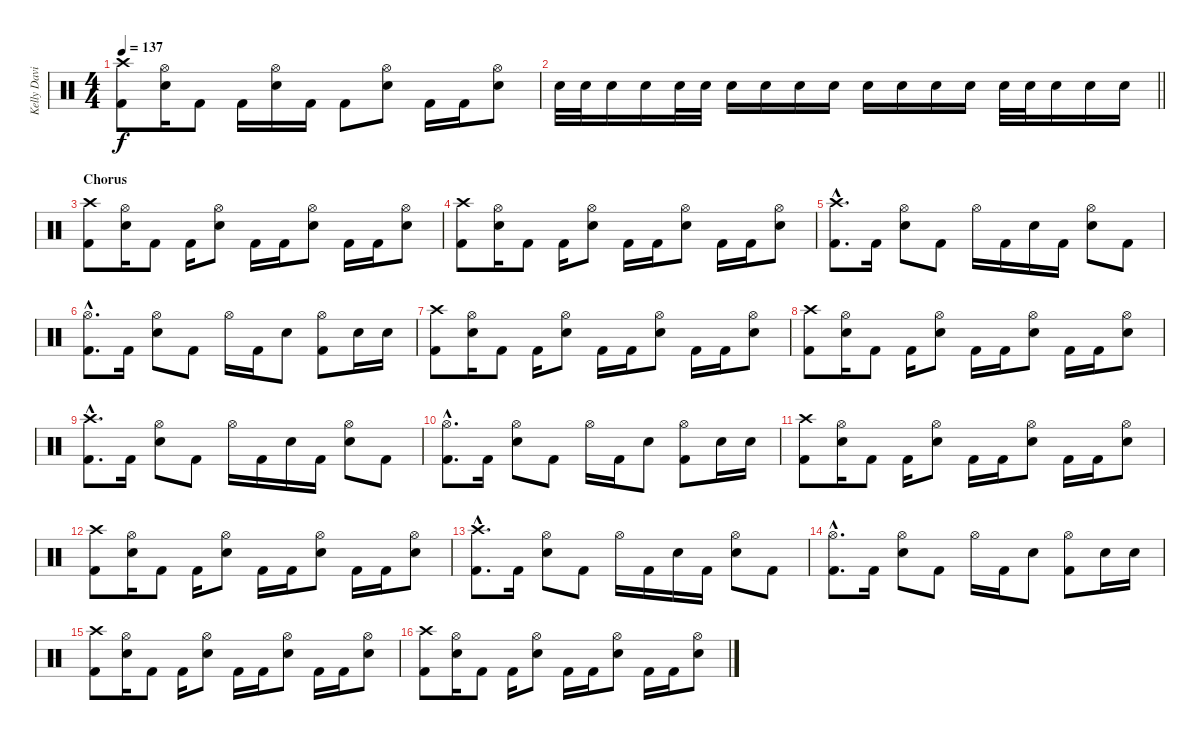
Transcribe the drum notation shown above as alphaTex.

\track ("Kelly David Smith" "Kelly Davi") {instrument percussion}
\staff {score}
\articulation defaults
\ts (4 4)
\tempo 137
\clef neutral
\ks c
("Crash high (hit)" "Kick (hit) 2").8{dy f} ("Hi-Hat (open)" "Snare (hit) 2").16 "Kick (hit) 2".8 "Kick (hit) 2".16 ("Hi-Hat (open)" "Snare (hit) 2").16 "Kick (hit) 2".16 "Kick (hit) 2".8 ("Hi-Hat (open)" "Snare (hit) 2").8 "Kick (hit) 2".16 "Kick (hit) 2".16 ("Hi-Hat (open)" "Snare (hit) 2").8 |
\barLineRight lightlight "Snare (hit) 2".32 "Snare (hit) 2".32 "Snare (hit) 2".16 "Snare (hit) 2".16 "Snare (hit) 2".32 "Snare (hit) 2".32 "Snare (hit) 2".16 "Snare (hit) 2".16 "Snare (hit) 2".16 "Snare (hit) 2".16 "Snare (hit) 2".16 "Snare (hit) 2".16 "Snare (hit) 2".16 "Snare (hit) 2".16 "Snare (hit) 2".32 "Snare (hit) 2".32 "Snare (hit) 2".16 "Snare (hit) 2".16 "Snare (hit) 2".16
|
\section ("" "Chorus")
("Crash high (hit)" "Kick (hit) 2").8 ("Hi-Hat (open)" "Snare (hit) 2").16 "Kick (hit) 2".8 "Kick (hit) 2".16 ("Hi-Hat (open)" "Snare (hit) 2").8 "Kick (hit) 2".16 "Kick (hit) 2".16 ("Hi-Hat (open)" "Snare (hit) 2").8 "Kick (hit) 2".16 "Kick (hit) 2".16 ("Hi-Hat (open)" "Snare (hit) 2").8 |
("Crash high (hit)" "Kick (hit) 2").8 ("Hi-Hat (open)" "Snare (hit) 2").16 "Kick (hit) 2".8 "Kick (hit) 2".16 ("Hi-Hat (open)" "Snare (hit) 2").8 "Kick (hit) 2".16 "Kick (hit) 2".16 ("Hi-Hat (open)" "Snare (hit) 2").8 "Kick (hit) 2".16 "Kick (hit) 2".16 ("Hi-Hat (open)" "Snare (hit) 2").8 |
("Crash high (hit)"{hac} "Kick (hit) 2"{hac}).8{d} "Kick (hit) 2".16 ("Hi-Hat (open)" "Snare (hit) 2").8 "Kick (hit) 2".8 "Hi-Hat (open)".16 "Kick (hit) 2".16 "Snare (hit) 2".16 "Kick (hit) 2".16 ("Hi-Hat (open)" "Snare (hit) 2").8 "Kick (hit) 2".8 |
("Hi-Hat (open)"{hac} "Kick (hit) 2"{hac}).8{d} "Kick (hit) 2".16 ("Hi-Hat (open)" "Snare (hit) 2").8 "Kick (hit) 2".8 "Hi-Hat (open)".16 "Kick (hit) 2".16 "Snare (hit) 2".8 ("Hi-Hat (open)" "Kick (hit) 2").8 "Snare (hit) 2".16 "Snare (hit) 2".16 |
("Crash high (hit)" "Kick (hit) 2").8 ("Hi-Hat (open)" "Snare (hit) 2").16 "Kick (hit) 2".8 "Kick (hit) 2".16 ("Hi-Hat (open)" "Snare (hit) 2").8 "Kick (hit) 2".16 "Kick (hit) 2".16 ("Hi-Hat (open)" "Snare (hit) 2").8 "Kick (hit) 2".16 "Kick (hit) 2".16 ("Hi-Hat (open)" "Snare (hit) 2").8 |
("Crash high (hit)" "Kick (hit) 2").8 ("Hi-Hat (open)" "Snare (hit) 2").16 "Kick (hit) 2".8 "Kick (hit) 2".16 ("Hi-Hat (open)" "Snare (hit) 2").8 "Kick (hit) 2".16 "Kick (hit) 2".16 ("Hi-Hat (open)" "Snare (hit) 2").8 "Kick (hit) 2".16 "Kick (hit) 2".16 ("Hi-Hat (open)" "Snare (hit) 2").8 |
("Crash high (hit)"{hac} "Kick (hit) 2"{hac}).8{d} "Kick (hit) 2".16 ("Hi-Hat (open)" "Snare (hit) 2").8 "Kick (hit) 2".8 "Hi-Hat (open)".16 "Kick (hit) 2".16 "Snare (hit) 2".16 "Kick (hit) 2".16 ("Hi-Hat (open)" "Snare (hit) 2").8 "Kick (hit) 2".8 |
("Hi-Hat (open)"{hac} "Kick (hit) 2"{hac}).8{d} "Kick (hit) 2".16 ("Hi-Hat (open)" "Snare (hit) 2").8 "Kick (hit) 2".8 "Hi-Hat (open)".16 "Kick (hit) 2".16 "Snare (hit) 2".8 ("Hi-Hat (open)" "Kick (hit) 2").8 "Snare (hit) 2".16 "Snare (hit) 2".16 |
("Crash high (hit)" "Kick (hit) 2").8 ("Hi-Hat (open)" "Snare (hit) 2").16 "Kick (hit) 2".8 "Kick (hit) 2".16 ("Hi-Hat (open)" "Snare (hit) 2").8 "Kick (hit) 2".16 "Kick (hit) 2".16 ("Hi-Hat (open)" "Snare (hit) 2").8 "Kick (hit) 2".16 "Kick (hit) 2".16 ("Hi-Hat (open)" "Snare (hit) 2").8 |
("Crash high (hit)" "Kick (hit) 2").8 ("Hi-Hat (open)" "Snare (hit) 2").16 "Kick (hit) 2".8 "Kick (hit) 2".16 ("Hi-Hat (open)" "Snare (hit) 2").8 "Kick (hit) 2".16 "Kick (hit) 2".16 ("Hi-Hat (open)" "Snare (hit) 2").8 "Kick (hit) 2".16 "Kick (hit) 2".16 ("Hi-Hat (open)" "Snare (hit) 2").8 |
("Crash high (hit)"{hac} "Kick (hit) 2"{hac}).8{d} "Kick (hit) 2".16 ("Hi-Hat (open)" "Snare (hit) 2").8 "Kick (hit) 2".8 "Hi-Hat (open)".16 "Kick (hit) 2".16 "Snare (hit) 2".16 "Kick (hit) 2".16 ("Hi-Hat (open)" "Snare (hit) 2").8 "Kick (hit) 2".8 |
("Hi-Hat (open)"{hac} "Kick (hit) 2"{hac}).8{d} "Kick (hit) 2".16 ("Hi-Hat (open)" "Snare (hit) 2").8 "Kick (hit) 2".8 "Hi-Hat (open)".16 "Kick (hit) 2".16 "Snare (hit) 2".8 ("Hi-Hat (open)" "Kick (hit) 2").8 "Snare (hit) 2".16 "Snare (hit) 2".16 |
("Crash high (hit)" "Kick (hit) 2").8 ("Hi-Hat (open)" "Snare (hit) 2").16 "Kick (hit) 2".8 "Kick (hit) 2".16 ("Hi-Hat (open)" "Snare (hit) 2").8 "Kick (hit) 2".16 "Kick (hit) 2".16 ("Hi-Hat (open)" "Snare (hit) 2").8 "Kick (hit) 2".16 "Kick (hit) 2".16 ("Hi-Hat (open)" "Snare (hit) 2").8 |
("Crash high (hit)" "Kick (hit) 2").8 ("Hi-Hat (open)" "Snare (hit) 2").16 "Kick (hit) 2".8 "Kick (hit) 2".16 ("Hi-Hat (open)" "Snare (hit) 2").8 "Kick (hit) 2".16 "Kick (hit) 2".16 ("Hi-Hat (open)" "Snare (hit) 2").8 "Kick (hit) 2".16 "Kick (hit) 2".16 ("Hi-Hat (open)" "Snare (hit) 2").8
